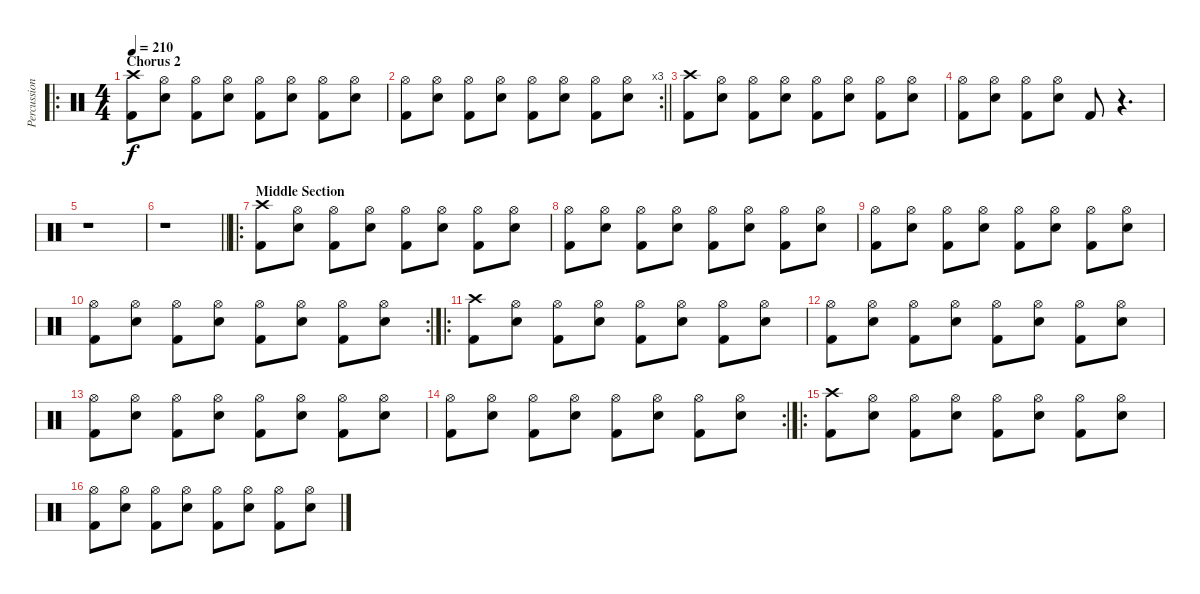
\track ("Percussion" "Percussion") {instrument percussion}
\staff {score}
\articulation defaults
\ro
\ts (4 4)
\section ("" "Chorus 2")
\tempo 210
\clef neutral
\ks c
("Crash high (hit)" "Kick (hit) 2").8{dy f} ("Hi-Hat (open)" "Electric Snare (hit)").8 ("Hi-Hat (open)" "Kick (hit) 2").8 ("Hi-Hat (open)" "Electric Snare (hit)").8 ("Hi-Hat (open)" "Kick (hit) 2").8 ("Hi-Hat (open)" "Electric Snare (hit)").8 ("Hi-Hat (open)" "Kick (hit) 2").8 ("Hi-Hat (open)" "Electric Snare (hit)").8 |
\rc 3
\barLineRight lightlight
("Hi-Hat (open)" "Kick (hit) 2").8 ("Hi-Hat (open)" "Electric Snare (hit)").8 ("Hi-Hat (open)" "Kick (hit) 2").8 ("Hi-Hat (open)" "Electric Snare (hit)").8 ("Hi-Hat (open)" "Kick (hit) 2").8 ("Hi-Hat (open)" "Electric Snare (hit)").8 ("Hi-Hat (open)" "Kick (hit) 2").8 ("Hi-Hat (open)" "Electric Snare (hit)").8 |
("Crash high (hit)" "Kick (hit) 2").8 ("Hi-Hat (open)" "Electric Snare (hit)").8 ("Hi-Hat (open)" "Kick (hit) 2").8 ("Hi-Hat (open)" "Electric Snare (hit)").8 ("Hi-Hat (open)" "Kick (hit) 2").8 ("Hi-Hat (open)" "Electric Snare (hit)").8 ("Hi-Hat (open)" "Kick (hit) 2").8 ("Hi-Hat (open)" "Electric Snare (hit)").8 |
("Hi-Hat (open)" "Kick (hit) 2").8 ("Hi-Hat (open)" "Electric Snare (hit)").8 ("Hi-Hat (open)" "Kick (hit) 2").8 ("Hi-Hat (open)" "Electric Snare (hit)").8 "Kick (hit) 2".8 r.4{d} |
r.1 |
\barLineRight lightlight
r.1 |
\ro
\section ("" "Middle Section")
("Crash high (hit)" "Kick (hit) 2").8 ("Hi-Hat (open)" "Electric Snare (hit)").8 ("Hi-Hat (open)" "Kick (hit) 2").8 ("Hi-Hat (open)" "Electric Snare (hit)").8 ("Hi-Hat (open)" "Kick (hit) 2").8 ("Hi-Hat (open)" "Electric Snare (hit)").8 ("Hi-Hat (open)" "Kick (hit) 2").8 ("Hi-Hat (open)" "Electric Snare (hit)").8 |
("Hi-Hat (open)" "Kick (hit) 2").8 ("Hi-Hat (open)" "Electric Snare (hit)").8 ("Hi-Hat (open)" "Kick (hit) 2").8 ("Hi-Hat (open)" "Electric Snare (hit)").8 ("Hi-Hat (open)" "Kick (hit) 2").8 ("Hi-Hat (open)" "Electric Snare (hit)").8 ("Hi-Hat (open)" "Kick (hit) 2").8 ("Hi-Hat (open)" "Electric Snare (hit)").8 |
("Hi-Hat (open)" "Kick (hit) 2").8 ("Hi-Hat (open)" "Electric Snare (hit)").8 ("Hi-Hat (open)" "Kick (hit) 2").8 ("Hi-Hat (open)" "Electric Snare (hit)").8 ("Hi-Hat (open)" "Kick (hit) 2").8 ("Hi-Hat (open)" "Electric Snare (hit)").8 ("Hi-Hat (open)" "Kick (hit) 2").8 ("Hi-Hat (open)" "Electric Snare (hit)").8 |
\rc 2
("Hi-Hat (open)" "Kick (hit) 2").8 ("Hi-Hat (open)" "Electric Snare (hit)").8 ("Hi-Hat (open)" "Kick (hit) 2").8 ("Hi-Hat (open)" "Electric Snare (hit)").8 ("Hi-Hat (open)" "Kick (hit) 2").8 ("Hi-Hat (open)" "Electric Snare (hit)").8 ("Hi-Hat (open)" "Kick (hit) 2").8 ("Hi-Hat (open)" "Electric Snare (hit)").8 |
\ro
("Crash high (hit)" "Kick (hit) 2").8 ("Hi-Hat (open)" "Electric Snare (hit)").8 ("Hi-Hat (open)" "Kick (hit) 2").8 ("Hi-Hat (open)" "Electric Snare (hit)").8 ("Hi-Hat (open)" "Kick (hit) 2").8 ("Hi-Hat (open)" "Electric Snare (hit)").8 ("Hi-Hat (open)" "Kick (hit) 2").8 ("Hi-Hat (open)" "Electric Snare (hit)").8 |
("Hi-Hat (open)" "Kick (hit) 2").8 ("Hi-Hat (open)" "Electric Snare (hit)").8 ("Hi-Hat (open)" "Kick (hit) 2").8 ("Hi-Hat (open)" "Electric Snare (hit)").8 ("Hi-Hat (open)" "Kick (hit) 2").8 ("Hi-Hat (open)" "Electric Snare (hit)").8 ("Hi-Hat (open)" "Kick (hit) 2").8 ("Hi-Hat (open)" "Electric Snare (hit)").8 |
("Hi-Hat (open)" "Kick (hit) 2").8 ("Hi-Hat (open)" "Electric Snare (hit)").8 ("Hi-Hat (open)" "Kick (hit) 2").8 ("Hi-Hat (open)" "Electric Snare (hit)").8 ("Hi-Hat (open)" "Kick (hit) 2").8 ("Hi-Hat (open)" "Electric Snare (hit)").8 ("Hi-Hat (open)" "Kick (hit) 2").8 ("Hi-Hat (open)" "Electric Snare (hit)").8 |
\rc 2
("Hi-Hat (open)" "Kick (hit) 2").8 ("Hi-Hat (open)" "Electric Snare (hit)").8 ("Hi-Hat (open)" "Kick (hit) 2").8 ("Hi-Hat (open)" "Electric Snare (hit)").8 ("Hi-Hat (open)" "Kick (hit) 2").8 ("Hi-Hat (open)" "Electric Snare (hit)").8 ("Hi-Hat (open)" "Kick (hit) 2").8 ("Hi-Hat (open)" "Electric Snare (hit)").8 |
\ro
("Crash high (hit)" "Kick (hit) 2").8 ("Hi-Hat (open)" "Electric Snare (hit)").8 ("Hi-Hat (open)" "Kick (hit) 2").8 ("Hi-Hat (open)" "Electric Snare (hit)").8 ("Hi-Hat (open)" "Kick (hit) 2").8 ("Hi-Hat (open)" "Electric Snare (hit)").8 ("Hi-Hat (open)" "Kick (hit) 2").8 ("Hi-Hat (open)" "Electric Snare (hit)").8 |
("Hi-Hat (open)" "Kick (hit) 2").8 ("Hi-Hat (open)" "Electric Snare (hit)").8 ("Hi-Hat (open)" "Kick (hit) 2").8 ("Hi-Hat (open)" "Electric Snare (hit)").8 ("Hi-Hat (open)" "Kick (hit) 2").8 ("Hi-Hat (open)" "Electric Snare (hit)").8 ("Hi-Hat (open)" "Kick (hit) 2").8 ("Hi-Hat (open)" "Electric Snare (hit)").8
